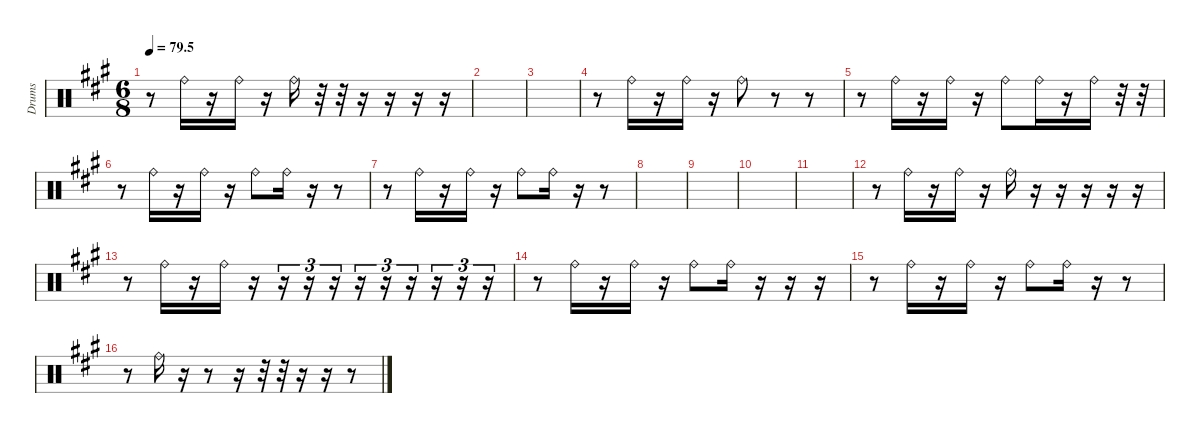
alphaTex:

\defaultSystemsLayout 4
\hideDynamics
\bracketExtendMode nobrackets
\otherSystemsTrackNameOrientation horizontal
\track ("Raid" "Drums") {instrument percussion}
\staff {score}
\articulation defaults
\ts (6 8)
\tempo
79.5
\accidentals auto
\clef neutral
\ottava regular
\simile none
\scale
0.333333
\ks a
r.8{dy f} "Ride (bell)"{acc forcenatural}.16 r.16 "Ride (bell)"{acc forcenatural}.16 r.16 "Ride (bell)"{acc forcenatural}.16 r.32 r.32 r.16 r.16 r.16 r.16 |
\scale
0.333333 |
\scale
0.333333 |
\scale
0.333333 r.8 "Ride (bell)"{acc forcenatural}.16 r.16 "Ride (bell)"{acc forcenatural}.16 r.16 "Ride (bell)"{acc forcenatural}.8 r.8 r.8 |
\scale
0.333333 r.8 "Ride (bell)"{acc forcenatural}.16 r.16 "Ride (bell)"{acc forcenatural}.16 r.16 "Ride (bell)"{acc forcenatural}.8 "Ride (bell)"{acc forcenatural}.16 r.16 "Ride (bell)"{acc forcenatural}.16 r.32 r.32 |
\scale
0.333333 r.8 "Ride (bell)"{acc forcenatural}.16 r.16 "Ride (bell)"{acc forcenatural}.16 r.16 "Ride (bell)"{acc forcenatural}.8 "Ride (bell)"{acc forcenatural}.16 r.16 r.8 |
\scale
0.333333 r.8 "Ride (bell)"{acc forcenatural}.16 r.16 "Ride (bell)"{acc forcenatural}.16 r.16 "Ride (bell)"{acc forcenatural}.8 "Ride (bell)"{acc forcenatural}.16 r.16 r.8 |
\scale
0.333333 |
\scale
0.333333 |
\scale
0.333333 |
\scale
0.333333 |
\scale
0.333333 r.8 "Ride (bell)"{acc forcenatural}.16 r.16 "Ride (bell)"{acc forcenatural}.16 r.16 "Ride (bell)"{acc forcenatural}.16 r.16 r.16 r.16 r.16 r.16 |
\scale
0.333333 r.8 "Ride (bell)"{acc forcenatural}.16 r.16 "Ride (bell)"{acc forcenatural}.16 r.16 r.16{tu (3 2)} r.16{tu (3 2)} r.16{tu (3 2)} r.16{tu (3 2)} r.16{tu (3 2)} r.16{tu (3 2)} r.16{tu (3 2)} r.16{tu (3 2)} r.16{tu (3 2)} |
\scale
0.333333 r.8 "Ride (bell)"{acc forcenatural}.16 r.16 "Ride (bell)"{acc forcenatural}.16 r.16 "Ride (bell)"{acc forcenatural}.8 "Ride (bell)"{acc forcenatural}.16 r.16 r.16 r.16 |
\scale
0.333333 r.8 "Ride (bell)"{acc forcenatural}.16 r.16 "Ride (bell)"{acc forcenatural}.16 r.16 "Ride (bell)"{acc forcenatural}.8 "Ride (bell)"{acc forcenatural}.16 r.16 r.8 |
\scale
0.333333 r.8 "Ride (bell)"{acc forcenatural}.16 r.16 r.8 r.16 r.32 r.32 r.16 r.16 r.8
